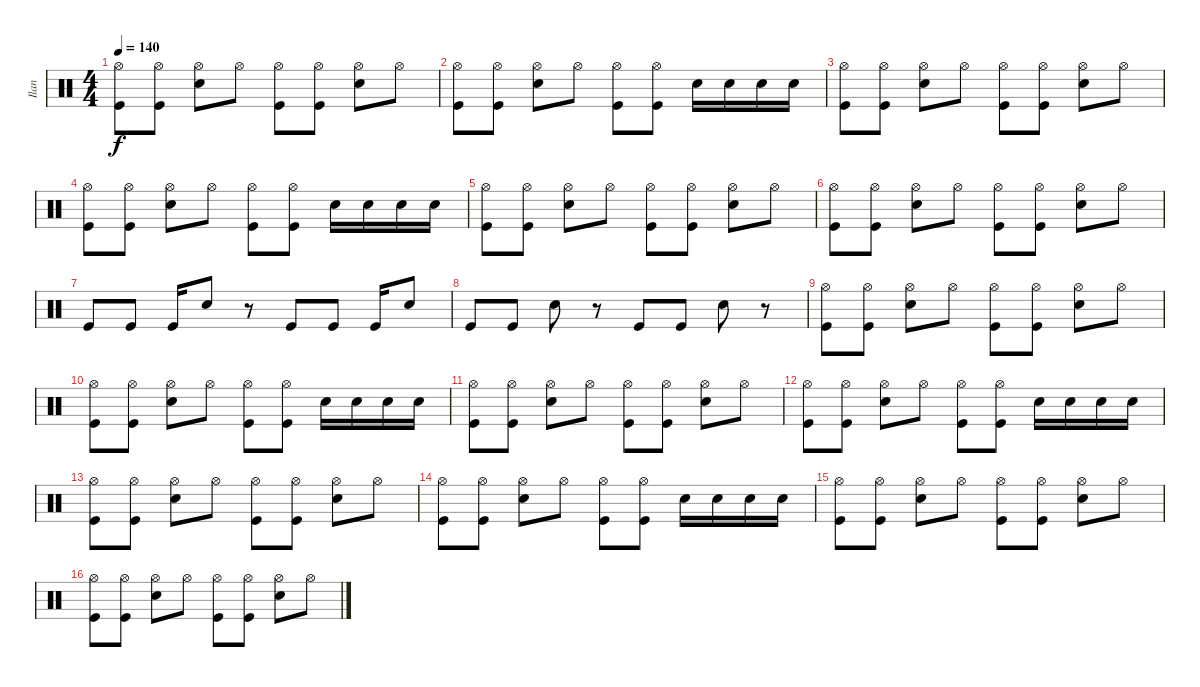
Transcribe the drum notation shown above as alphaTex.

\track ("Ilan" "Ilan") {instrument percussion}
\staff {score}
\articulation defaults
\ts (4 4)
\tempo 140
\clef neutral
\ks c
("Hi-Hat (open)" "Kick (hit)").8{dy f} ("Hi-Hat (open)" "Kick (hit)").8 ("Hi-Hat (open)" "Electric Snare (hit)").8 "Hi-Hat (open)".8 ("Hi-Hat (open)" "Kick (hit)").8 ("Hi-Hat (open)" "Kick (hit)").8 ("Hi-Hat (open)" "Electric Snare (hit)").8 "Hi-Hat (open)".8 |
("Hi-Hat (open)" "Kick (hit)").8 ("Hi-Hat (open)" "Kick (hit)").8 ("Hi-Hat (open)" "Electric Snare (hit)").8 "Hi-Hat (open)".8 ("Hi-Hat (open)" "Kick (hit)").8 ("Hi-Hat (open)" "Kick (hit)").8 "Electric Snare (hit)".16 "Electric Snare (hit)".16 "Electric Snare (hit)".16 "Electric Snare (hit)".16 |
("Hi-Hat (open)" "Kick (hit)").8 ("Hi-Hat (open)" "Kick (hit)").8 ("Hi-Hat (open)" "Electric Snare (hit)").8 "Hi-Hat (open)".8 ("Hi-Hat (open)" "Kick (hit)").8 ("Hi-Hat (open)" "Kick (hit)").8 ("Hi-Hat (open)" "Electric Snare (hit)").8 "Hi-Hat (open)".8 |
("Hi-Hat (open)" "Kick (hit)").8 ("Hi-Hat (open)" "Kick (hit)").8 ("Hi-Hat (open)" "Electric Snare (hit)").8 "Hi-Hat (open)".8 ("Hi-Hat (open)" "Kick (hit)").8 ("Hi-Hat (open)" "Kick (hit)").8 "Electric Snare (hit)".16 "Electric Snare (hit)".16 "Electric Snare (hit)".16 "Electric Snare (hit)".16 |
("Hi-Hat (open)" "Kick (hit)").8 ("Hi-Hat (open)" "Kick (hit)").8 ("Hi-Hat (open)" "Electric Snare (hit)").8 "Hi-Hat (open)".8 ("Hi-Hat (open)" "Kick (hit)").8 ("Hi-Hat (open)" "Kick (hit)").8 ("Hi-Hat (open)" "Electric Snare (hit)").8 "Hi-Hat (open)".8 |
("Hi-Hat (open)" "Kick (hit)").8 ("Hi-Hat (open)" "Kick (hit)").8 ("Hi-Hat (open)" "Electric Snare (hit)").8 "Hi-Hat (open)".8 ("Hi-Hat (open)" "Kick (hit)").8 ("Hi-Hat (open)" "Kick (hit)").8 ("Hi-Hat (open)" "Electric Snare (hit)").8 "Hi-Hat (open)".8 |
"Kick (hit)".8 "Kick (hit)".8 "Kick (hit)".16 "Electric Snare (hit)".8 r.8 "Kick (hit)".8 "Kick (hit)".8 "Kick (hit)".16 "Electric Snare (hit)".8 |
"Kick (hit)".8 "Kick (hit)".8 "Electric Snare (hit)".8 r.8 "Kick (hit)".8 "Kick (hit)".8 "Electric Snare (hit)".8 r.8 |
("Hi-Hat (open)" "Kick (hit)").8 ("Hi-Hat (open)" "Kick (hit)").8 ("Hi-Hat (open)" "Electric Snare (hit)").8 "Hi-Hat (open)".8 ("Hi-Hat (open)" "Kick (hit)").8 ("Hi-Hat (open)" "Kick (hit)").8 ("Hi-Hat (open)" "Electric Snare (hit)").8 "Hi-Hat (open)".8 |
("Hi-Hat (open)" "Kick (hit)").8 ("Hi-Hat (open)" "Kick (hit)").8 ("Hi-Hat (open)" "Electric Snare (hit)").8 "Hi-Hat (open)".8 ("Hi-Hat (open)" "Kick (hit)").8 ("Hi-Hat (open)" "Kick (hit)").8 "Electric Snare (hit)".16 "Electric Snare (hit)".16 "Electric Snare (hit)".16 "Electric Snare (hit)".16 |
("Hi-Hat (open)" "Kick (hit)").8 ("Hi-Hat (open)" "Kick (hit)").8 ("Hi-Hat (open)" "Electric Snare (hit)").8 "Hi-Hat (open)".8 ("Hi-Hat (open)" "Kick (hit)").8 ("Hi-Hat (open)" "Kick (hit)").8 ("Hi-Hat (open)" "Electric Snare (hit)").8 "Hi-Hat (open)".8 |
("Hi-Hat (open)" "Kick (hit)").8 ("Hi-Hat (open)" "Kick (hit)").8 ("Hi-Hat (open)" "Electric Snare (hit)").8 "Hi-Hat (open)".8 ("Hi-Hat (open)" "Kick (hit)").8 ("Hi-Hat (open)" "Kick (hit)").8 "Electric Snare (hit)".16 "Electric Snare (hit)".16 "Electric Snare (hit)".16 "Electric Snare (hit)".16 |
("Hi-Hat (open)" "Kick (hit)").8 ("Hi-Hat (open)" "Kick (hit)").8 ("Hi-Hat (open)" "Electric Snare (hit)").8 "Hi-Hat (open)".8 ("Hi-Hat (open)" "Kick (hit)").8 ("Hi-Hat (open)" "Kick (hit)").8 ("Hi-Hat (open)" "Electric Snare (hit)").8 "Hi-Hat (open)".8 |
("Hi-Hat (open)" "Kick (hit)").8 ("Hi-Hat (open)" "Kick (hit)").8 ("Hi-Hat (open)" "Electric Snare (hit)").8 "Hi-Hat (open)".8 ("Hi-Hat (open)" "Kick (hit)").8 ("Hi-Hat (open)" "Kick (hit)").8 "Electric Snare (hit)".16 "Electric Snare (hit)".16 "Electric Snare (hit)".16 "Electric Snare (hit)".16 |
("Hi-Hat (open)" "Kick (hit)").8 ("Hi-Hat (open)" "Kick (hit)").8 ("Hi-Hat (open)" "Electric Snare (hit)").8 "Hi-Hat (open)".8 ("Hi-Hat (open)" "Kick (hit)").8 ("Hi-Hat (open)" "Kick (hit)").8 ("Hi-Hat (open)" "Electric Snare (hit)").8 "Hi-Hat (open)".8 |
("Hi-Hat (open)" "Kick (hit)").8 ("Hi-Hat (open)" "Kick (hit)").8 ("Hi-Hat (open)" "Electric Snare (hit)").8 "Hi-Hat (open)".8 ("Hi-Hat (open)" "Kick (hit)").8 ("Hi-Hat (open)" "Kick (hit)").8 ("Hi-Hat (open)" "Electric Snare (hit)").8 "Hi-Hat (open)".8
